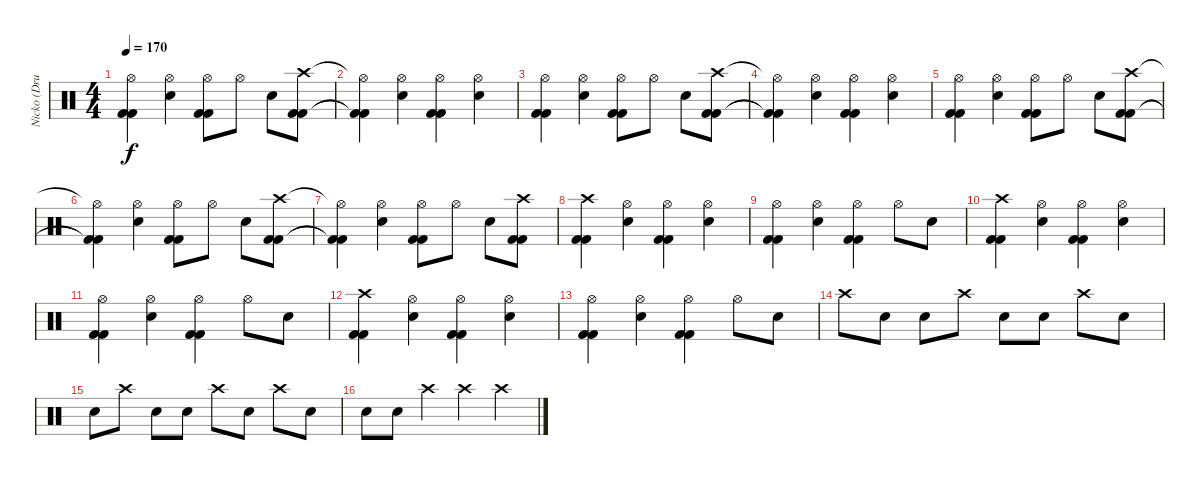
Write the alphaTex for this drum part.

\track ("Nicko (Drums)" "Nicko (Dru") {instrument percussion}
\staff {score}
\articulation defaults
\ts (4 4)
\tempo 170
\clef neutral
\ks c
("Hi-Hat (open)" "Kick (hit) 2" "Kick (hit) 2").4{dy f} ("Hi-Hat (open)" "Snare (hit) 2").4 ("Hi-Hat (open)" "Kick (hit) 2" "Kick (hit) 2").8 "Hi-Hat (open)".8 "Snare (hit) 2".8 ("Crash high (hit)" "Kick (hit) 2" "Kick (hit) 2").8 |
("Hi-Hat (open)"{t} "Kick (hit) 2"{t} "Kick (hit) 2"{t}).4 ("Hi-Hat (open)" "Snare (hit) 2").4 ("Hi-Hat (open)" "Kick (hit) 2" "Kick (hit) 2").4 ("Hi-Hat (open)" "Snare (hit) 2").4 |
("Hi-Hat (open)" "Kick (hit) 2" "Kick (hit) 2").4 ("Hi-Hat (open)" "Snare (hit) 2").4 ("Hi-Hat (open)" "Kick (hit) 2" "Kick (hit) 2").8 "Hi-Hat (open)".8 "Snare (hit) 2".8 ("Crash high (hit)" "Kick (hit) 2" "Kick (hit) 2").8 |
("Hi-Hat (open)"{t} "Kick (hit) 2"{t} "Kick (hit) 2"{t}).4 ("Hi-Hat (open)" "Snare (hit) 2").4 ("Hi-Hat (open)" "Kick (hit) 2" "Kick (hit) 2").4 ("Hi-Hat (open)" "Snare (hit) 2").4 |
("Hi-Hat (open)" "Kick (hit) 2" "Kick (hit) 2").4 ("Hi-Hat (open)" "Snare (hit) 2").4 ("Hi-Hat (open)" "Kick (hit) 2" "Kick (hit) 2").8 "Hi-Hat (open)".8 "Snare (hit) 2".8 ("Crash high (hit)" "Kick (hit) 2" "Kick (hit) 2").8 |
("Hi-Hat (open)"{t} "Kick (hit) 2"{t} "Kick (hit) 2"{t}).4 ("Hi-Hat (open)" "Snare (hit) 2").4 ("Hi-Hat (open)" "Kick (hit) 2" "Kick (hit) 2").8 "Hi-Hat (open)".8 "Snare (hit) 2".8 ("Crash high (hit)" "Kick (hit) 2" "Kick (hit) 2").8 |
("Hi-Hat (open)"{t} "Kick (hit) 2"{t} "Kick (hit) 2"{t}).4 ("Hi-Hat (open)" "Snare (hit) 2").4 ("Hi-Hat (open)" "Kick (hit) 2" "Kick (hit) 2").8 "Hi-Hat (open)".8 "Snare (hit) 2".8 ("Crash high (hit)" "Kick (hit) 2" "Kick (hit) 2").8 |
("Crash high (hit)" "Kick (hit) 2" "Kick (hit) 2").4 ("Hi-Hat (open)" "Snare (hit) 2").4 ("Hi-Hat (open)" "Kick (hit) 2" "Kick (hit) 2").4 ("Hi-Hat (open)" "Snare (hit) 2").4 |
("Hi-Hat (open)" "Kick (hit) 2" "Kick (hit) 2").4 ("Hi-Hat (open)" "Snare (hit) 2").4 ("Hi-Hat (open)" "Kick (hit) 2" "Kick (hit) 2").4 "Hi-Hat (open)".8 "Snare (hit) 2".8 |
("Crash high (hit)" "Kick (hit) 2" "Kick (hit) 2").4 ("Hi-Hat (open)" "Snare (hit) 2").4 ("Hi-Hat (open)" "Kick (hit) 2" "Kick (hit) 2").4 ("Hi-Hat (open)" "Snare (hit) 2").4 |
("Hi-Hat (open)" "Kick (hit) 2" "Kick (hit) 2").4 ("Hi-Hat (open)" "Snare (hit) 2").4 ("Hi-Hat (open)" "Kick (hit) 2" "Kick (hit) 2").4 "Hi-Hat (open)".8 "Snare (hit) 2".8 |
("Crash high (hit)" "Kick (hit) 2" "Kick (hit) 2").4 ("Hi-Hat (open)" "Snare (hit) 2").4 ("Hi-Hat (open)" "Kick (hit) 2" "Kick (hit) 2").4 ("Hi-Hat (open)" "Snare (hit) 2").4 |
("Hi-Hat (open)" "Kick (hit) 2" "Kick (hit) 2").4 ("Hi-Hat (open)" "Snare (hit) 2").4 ("Hi-Hat (open)" "Kick (hit) 2" "Kick (hit) 2").4 "Hi-Hat (open)".8 "Snare (hit) 2".8 |
"Crash high (hit)".8 "Snare (hit) 2".8 "Snare (hit) 2".8 "Crash high (hit)".8 "Snare (hit) 2".8 "Snare (hit) 2".8 "Crash high (hit)".8 "Snare (hit) 2".8 |
"Snare (hit) 2".8 "Crash high (hit)".8 "Snare (hit) 2".8 "Snare (hit) 2".8 "Crash high (hit)".8 "Snare (hit) 2".8 "Crash high (hit)".8 "Snare (hit) 2".8 |
"Snare (hit) 2".8 "Snare (hit) 2".8 "Crash high (hit)".4 "Crash high (hit)".4 "Crash high (hit)".4
